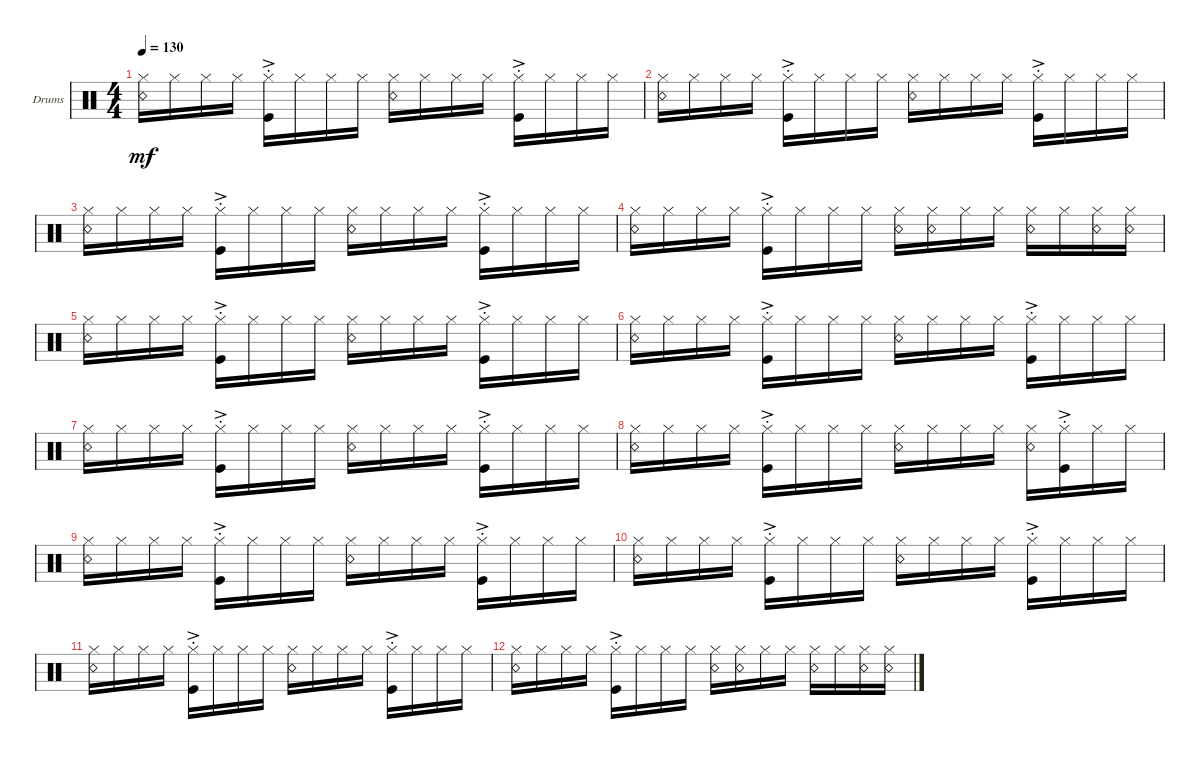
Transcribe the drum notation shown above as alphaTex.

\defaultSystemsLayout 4
\bracketExtendMode groupsimilarinstruments
\firstSystemTrackNameOrientation horizontal
\otherSystemsTrackNameOrientation horizontal
\track ("Drumkit" "Drums") {instrument percussion}
\staff {score}
\articulation defaults
\ts (4 4)
\tempo 130
\clef neutral
\ks c
("Hi-Hat (closed)" "Snare (rim shot)").16{dy mf} "Hi-Hat (closed)".16 "Hi-Hat (closed)".16 "Hi-Hat (closed)".16 ("Hi-Hat (closed)" "Kick (hit)"{ac st}).16 "Hi-Hat (closed)".16 "Hi-Hat (closed)".16 "Hi-Hat (closed)".16 ("Hi-Hat (closed)" "Snare (rim shot)").16 "Hi-Hat (closed)".16 "Hi-Hat (closed)".16 "Hi-Hat (closed)".16 ("Hi-Hat (closed)" "Kick (hit)"{ac st}).16 "Hi-Hat (closed)".16 "Hi-Hat (closed)".16 "Hi-Hat (closed)".16 |
("Hi-Hat (closed)" "Snare (rim shot)").16 "Hi-Hat (closed)".16 "Hi-Hat (closed)".16 "Hi-Hat (closed)".16 ("Hi-Hat (closed)" "Kick (hit)"{ac st}).16 "Hi-Hat (closed)".16 "Hi-Hat (closed)".16 "Hi-Hat (closed)".16 ("Hi-Hat (closed)" "Snare (rim shot)").16 "Hi-Hat (closed)".16 "Hi-Hat (closed)".16 "Hi-Hat (closed)".16 ("Hi-Hat (closed)" "Kick (hit)"{ac st}).16 "Hi-Hat (closed)".16 "Hi-Hat (closed)".16 "Hi-Hat (closed)".16 |
("Hi-Hat (closed)" "Snare (rim shot)").16 "Hi-Hat (closed)".16 "Hi-Hat (closed)".16 "Hi-Hat (closed)".16 ("Hi-Hat (closed)" "Kick (hit)"{ac st}).16 "Hi-Hat (closed)".16 "Hi-Hat (closed)".16 "Hi-Hat (closed)".16 ("Hi-Hat (closed)" "Snare (rim shot)").16 "Hi-Hat (closed)".16 "Hi-Hat (closed)".16 "Hi-Hat (closed)".16 ("Hi-Hat (closed)" "Kick (hit)"{ac st}).16 "Hi-Hat (closed)".16 "Hi-Hat (closed)".16 "Hi-Hat (closed)".16 |
("Hi-Hat (closed)" "Snare (rim shot)").16 "Hi-Hat (closed)".16 "Hi-Hat (closed)".16 "Hi-Hat (closed)".16 ("Hi-Hat (closed)" "Kick (hit)"{ac st}).16 "Hi-Hat (closed)".16 "Hi-Hat (closed)".16 "Hi-Hat (closed)".16 ("Hi-Hat (closed)" "Snare (rim shot)").16 ("Hi-Hat (closed)" "Snare (rim shot)").16 "Hi-Hat (closed)".16 "Hi-Hat (closed)".16 ("Hi-Hat (closed)" "Snare (rim shot)").16 "Hi-Hat (closed)".16 ("Hi-Hat (closed)" "Snare (rim shot)").16 ("Hi-Hat (closed)" "Snare (rim shot)").16 |
("Hi-Hat (closed)" "Snare (rim shot)").16 "Hi-Hat (closed)".16 "Hi-Hat (closed)".16 "Hi-Hat (closed)".16 ("Hi-Hat (closed)" "Kick (hit)"{ac st}).16 "Hi-Hat (closed)".16 "Hi-Hat (closed)".16 "Hi-Hat (closed)".16 ("Hi-Hat (closed)" "Snare (rim shot)").16 "Hi-Hat (closed)".16 "Hi-Hat (closed)".16 "Hi-Hat (closed)".16 ("Hi-Hat (closed)" "Kick (hit)"{ac st}).16 "Hi-Hat (closed)".16 "Hi-Hat (closed)".16 "Hi-Hat (closed)".16 |
("Hi-Hat (closed)" "Snare (rim shot)").16 "Hi-Hat (closed)".16 "Hi-Hat (closed)".16 "Hi-Hat (closed)".16 ("Hi-Hat (closed)" "Kick (hit)"{ac st}).16 "Hi-Hat (closed)".16 "Hi-Hat (closed)".16 "Hi-Hat (closed)".16 ("Hi-Hat (closed)" "Snare (rim shot)").16 "Hi-Hat (closed)".16 "Hi-Hat (closed)".16 "Hi-Hat (closed)".16 ("Hi-Hat (closed)" "Kick (hit)"{ac st}).16 "Hi-Hat (closed)".16 "Hi-Hat (closed)".16 "Hi-Hat (closed)".16 |
("Hi-Hat (closed)" "Snare (rim shot)").16 "Hi-Hat (closed)".16 "Hi-Hat (closed)".16 "Hi-Hat (closed)".16 ("Hi-Hat (closed)" "Kick (hit)"{ac st}).16 "Hi-Hat (closed)".16 "Hi-Hat (closed)".16 "Hi-Hat (closed)".16 ("Hi-Hat (closed)" "Snare (rim shot)").16 "Hi-Hat (closed)".16 "Hi-Hat (closed)".16 "Hi-Hat (closed)".16 ("Hi-Hat (closed)" "Kick (hit)"{ac st}).16 "Hi-Hat (closed)".16 "Hi-Hat (closed)".16 "Hi-Hat (closed)".16 |
("Hi-Hat (closed)" "Snare (rim shot)").16 "Hi-Hat (closed)".16 "Hi-Hat (closed)".16 "Hi-Hat (closed)".16 ("Hi-Hat (closed)" "Kick (hit)"{ac st}).16 "Hi-Hat (closed)".16 "Hi-Hat (closed)".16 "Hi-Hat (closed)".16 ("Hi-Hat (closed)" "Snare (rim shot)").16 "Hi-Hat (closed)".16 "Hi-Hat (closed)".16 "Hi-Hat (closed)".16 ("Hi-Hat (closed)" "Snare (rim shot)").16 ("Hi-Hat (closed)" "Kick (hit)"{ac st}).16 "Hi-Hat (closed)".16 "Hi-Hat (closed)".16 |
("Hi-Hat (closed)" "Snare (rim shot)").16 "Hi-Hat (closed)".16 "Hi-Hat (closed)".16 "Hi-Hat (closed)".16 ("Hi-Hat (closed)" "Kick (hit)"{ac st}).16 "Hi-Hat (closed)".16 "Hi-Hat (closed)".16 "Hi-Hat (closed)".16 ("Hi-Hat (closed)" "Snare (rim shot)").16 "Hi-Hat (closed)".16 "Hi-Hat (closed)".16 "Hi-Hat (closed)".16 ("Hi-Hat (closed)" "Kick (hit)"{ac st}).16 "Hi-Hat (closed)".16 "Hi-Hat (closed)".16 "Hi-Hat (closed)".16 |
("Hi-Hat (closed)" "Snare (rim shot)").16 "Hi-Hat (closed)".16 "Hi-Hat (closed)".16 "Hi-Hat (closed)".16 ("Hi-Hat (closed)" "Kick (hit)"{ac st}).16 "Hi-Hat (closed)".16 "Hi-Hat (closed)".16 "Hi-Hat (closed)".16 ("Hi-Hat (closed)" "Snare (rim shot)").16 "Hi-Hat (closed)".16 "Hi-Hat (closed)".16 "Hi-Hat (closed)".16 ("Hi-Hat (closed)" "Kick (hit)"{ac st}).16 "Hi-Hat (closed)".16 "Hi-Hat (closed)".16 "Hi-Hat (closed)".16 |
("Hi-Hat (closed)" "Snare (rim shot)").16 "Hi-Hat (closed)".16 "Hi-Hat (closed)".16 "Hi-Hat (closed)".16 ("Hi-Hat (closed)" "Kick (hit)"{ac st}).16 "Hi-Hat (closed)".16 "Hi-Hat (closed)".16 "Hi-Hat (closed)".16 ("Hi-Hat (closed)" "Snare (rim shot)").16 "Hi-Hat (closed)".16 "Hi-Hat (closed)".16 "Hi-Hat (closed)".16 ("Hi-Hat (closed)" "Kick (hit)"{ac st}).16 "Hi-Hat (closed)".16 "Hi-Hat (closed)".16 "Hi-Hat (closed)".16 |
("Hi-Hat (closed)" "Snare (rim shot)").16 "Hi-Hat (closed)".16 "Hi-Hat (closed)".16 "Hi-Hat (closed)".16 ("Hi-Hat (closed)" "Kick (hit)"{ac st}).16 "Hi-Hat (closed)".16 "Hi-Hat (closed)".16 "Hi-Hat (closed)".16 ("Hi-Hat (closed)" "Snare (rim shot)").16 ("Hi-Hat (closed)" "Snare (rim shot)").16 "Hi-Hat (closed)".16 "Hi-Hat (closed)".16 ("Hi-Hat (closed)" "Snare (rim shot)").16 "Hi-Hat (closed)".16 ("Hi-Hat (closed)" "Snare (rim shot)").16 ("Hi-Hat (closed)" "Snare (rim shot)").16
